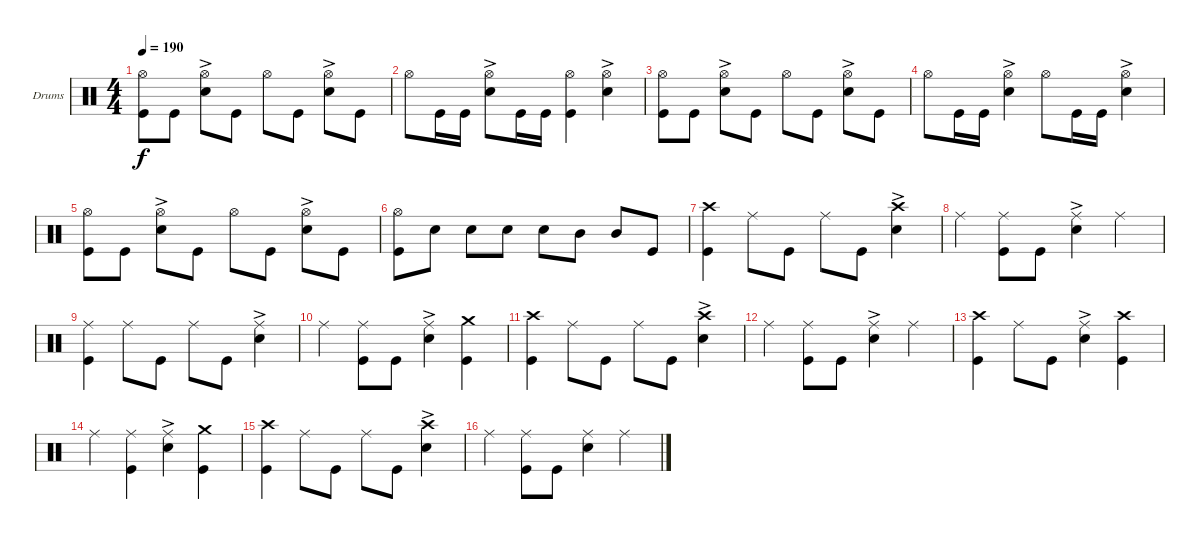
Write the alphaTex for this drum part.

\defaultSystemsLayout 4
\bracketExtendMode groupsimilarinstruments
\firstSystemTrackNameOrientation horizontal
\otherSystemsTrackNameOrientation horizontal
\track ("Drumkit" "Drums") {instrument percussion}
\staff {score}
\articulation defaults
\ts (4 4)
\tempo 190
\clef neutral
\ks c
("Kick (hit)" "Hi-Hat (open)").8{dy f} "Kick (hit)".8 ("Snare (hit) 2"{ac} "Hi-Hat (open)").8 "Kick (hit)".8 "Hi-Hat (open)".8 "Kick (hit)".8 ("Snare (hit) 2"{ac} "Hi-Hat (open)").8 "Kick (hit)".8 |
"Hi-Hat (open)".8 "Kick (hit)".16 "Kick (hit)".16 ("Snare (hit) 2"{ac} "Hi-Hat (open)").8 "Kick (hit)".16 "Kick (hit)".16 ("Kick (hit)" "Hi-Hat (open)").4 ("Snare (hit) 2"{ac} "Hi-Hat (open)").4 |
("Kick (hit)" "Hi-Hat (open)").8 "Kick (hit)".8 ("Snare (hit) 2"{ac} "Hi-Hat (open)").8 "Kick (hit)".8 "Hi-Hat (open)".8 "Kick (hit)".8 ("Snare (hit) 2"{ac} "Hi-Hat (open)").8 "Kick (hit)".8 |
"Hi-Hat (open)".8 "Kick (hit)".16 "Kick (hit)".16 ("Snare (hit) 2"{ac} "Hi-Hat (open)").4 "Hi-Hat (open)".8 "Kick (hit)".16 "Kick (hit)".16 ("Snare (hit) 2"{ac} "Hi-Hat (open)").4 |
("Kick (hit)" "Hi-Hat (open)").8 "Kick (hit)".8 ("Snare (hit) 2"{ac} "Hi-Hat (open)").8 "Kick (hit)".8 "Hi-Hat (open)".8 "Kick (hit)".8 ("Snare (hit) 2"{ac} "Hi-Hat (open)").8 "Kick (hit)".8 |
("Kick (hit)" "Hi-Hat (open)").8 "Snare (hit) 2".8 "Snare (hit) 2".8 "Snare (hit) 2".8 "Snare (hit) 2".8 "Mid Tom (hit)".8 "Mid Tom (hit)".8 "Kick (hit)".8 |
("Kick (hit)" "Crash high (hit)").4 "Ride (middle)".8 "Kick (hit)".8 "Ride (middle)".8 "Kick (hit)".8 ("Snare (hit) 2"{ac} "Crash high (hit)").4 |
"Ride (middle)".4 ("Kick (hit)" "Ride (middle)").8 "Kick (hit)".8 ("Snare (hit) 2"{ac} "Ride (middle)").4 "Ride (middle)".4 |
("Kick (hit)" "Ride (middle)").4 "Ride (middle)".8 "Kick (hit)".8 "Ride (middle)".8 "Kick (hit)".8 ("Snare (hit) 2"{ac} "Ride (middle)").4 |
"Ride (middle)".4 ("Kick (hit)" "Ride (middle)").8 "Kick (hit)".8 ("Snare (hit) 2"{ac} "Ride (middle)").4 ("Kick (hit)" "Crash medium (hit)").4 |
("Kick (hit)" "Crash high (hit)").4 "Ride (middle)".8 "Kick (hit)".8 "Ride (middle)".8 "Kick (hit)".8 ("Snare (hit) 2"{ac} "Crash high (hit)").4 |
"Ride (middle)".4 ("Kick (hit)" "Ride (middle)").8 "Kick (hit)".8 ("Snare (hit) 2"{ac} "Ride (middle)").4 "Ride (middle)".4 |
("Kick (hit)" "Crash high (hit)").4 "Ride (middle)".8 "Kick (hit)".8 ("Ride (middle)" "Snare (hit) 2"{ac}).4 ("Kick (hit)" "Crash high (hit)").4 |
"Ride (middle)".4 ("Kick (hit)" "Ride (middle)").4 ("Snare (hit) 2"{ac} "Ride (middle)").4 ("Kick (hit)" "Crash medium (hit)").4 |
("Kick (hit)" "Crash high (hit)").4 "Ride (middle)".8 "Kick (hit)".8 "Ride (middle)".8 "Kick (hit)".8 ("Snare (hit) 2"{ac} "Crash high (hit)").4 |
"Ride (middle)".4 ("Kick (hit)" "Ride (middle)").8 "Kick (hit)".8 ("Snare (hit) 2" "Ride (middle)").4 "Ride (middle)".4
